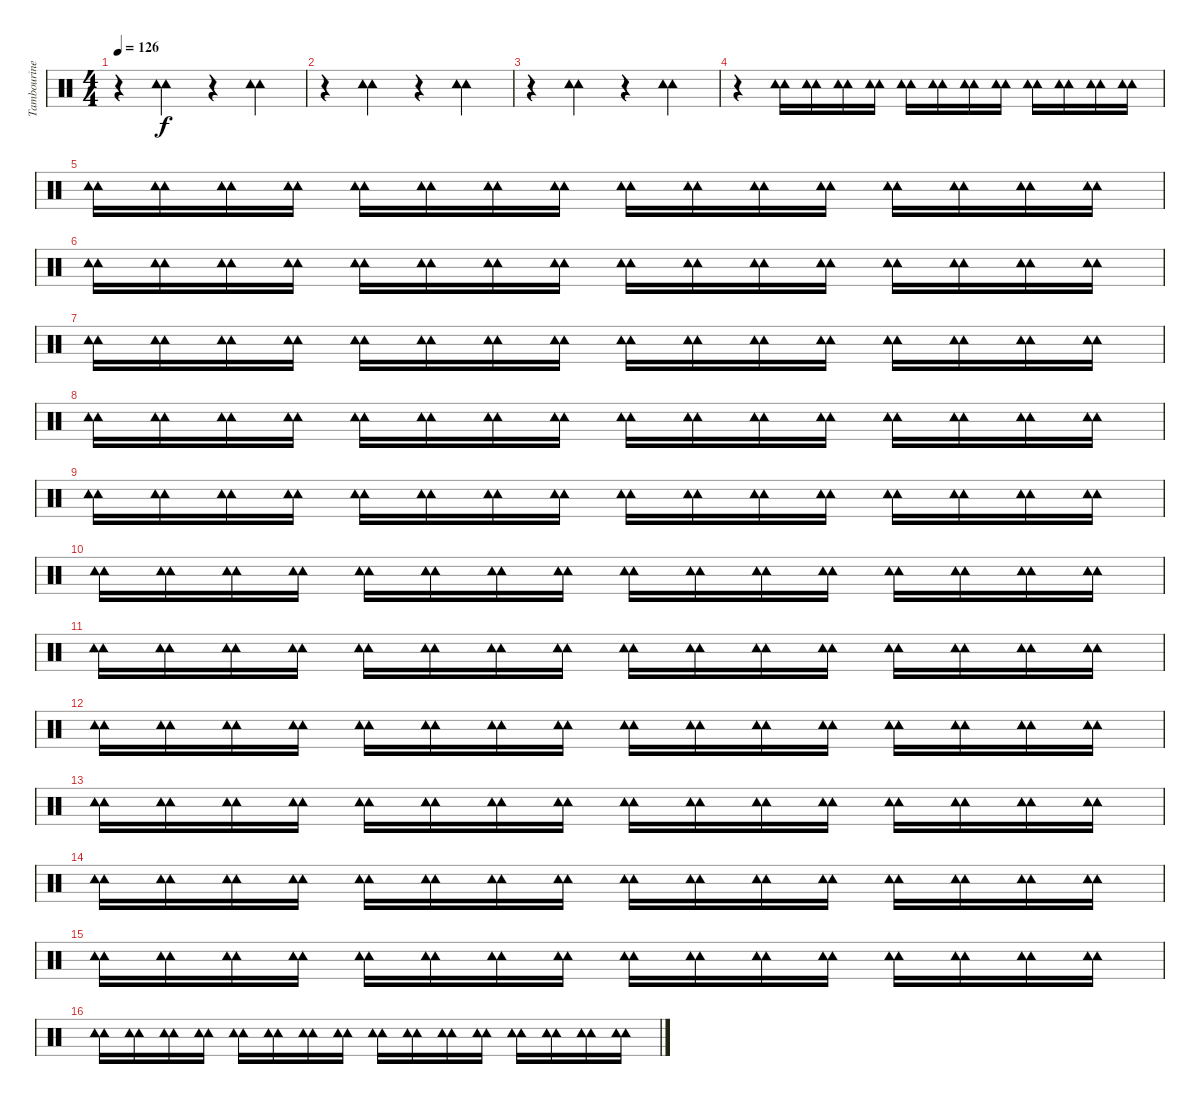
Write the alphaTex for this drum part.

\track ("Tambourine" "Tambourine") {instrument percussion}
\staff {score}
\articulation defaults
\ts (4 4)
\tempo 126
\clef neutral
\ks c
r.4{dy f} ("Tambourine (hit)" "Tambourine (hit)").4 r.4 ("Tambourine (hit)" "Tambourine (hit)").4 |
r.4 ("Tambourine (hit)" "Tambourine (hit)").4 r.4 ("Tambourine (hit)" "Tambourine (hit)").4 |
r.4 ("Tambourine (hit)" "Tambourine (hit)").4 r.4 ("Tambourine (hit)" "Tambourine (hit)").4 |
r.4 ("Tambourine (hit)" "Tambourine (hit)").16 ("Tambourine (hit)" "Tambourine (hit)").16 ("Tambourine (hit)" "Tambourine (hit)").16 ("Tambourine (hit)" "Tambourine (hit)").16 ("Tambourine (hit)" "Tambourine (hit)").16 ("Tambourine (hit)" "Tambourine (hit)").16 ("Tambourine (hit)" "Tambourine (hit)").16 ("Tambourine (hit)" "Tambourine (hit)").16 ("Tambourine (hit)" "Tambourine (hit)").16 ("Tambourine (hit)" "Tambourine (hit)").16 ("Tambourine (hit)" "Tambourine (hit)").16 ("Tambourine (hit)" "Tambourine (hit)").16 |
("Tambourine (hit)" "Tambourine (hit)").16 ("Tambourine (hit)" "Tambourine (hit)").16 ("Tambourine (hit)" "Tambourine (hit)").16 ("Tambourine (hit)" "Tambourine (hit)").16 ("Tambourine (hit)" "Tambourine (hit)").16 ("Tambourine (hit)" "Tambourine (hit)").16 ("Tambourine (hit)" "Tambourine (hit)").16 ("Tambourine (hit)" "Tambourine (hit)").16 ("Tambourine (hit)" "Tambourine (hit)").16 ("Tambourine (hit)" "Tambourine (hit)").16 ("Tambourine (hit)" "Tambourine (hit)").16 ("Tambourine (hit)" "Tambourine (hit)").16 ("Tambourine (hit)" "Tambourine (hit)").16 ("Tambourine (hit)" "Tambourine (hit)").16 ("Tambourine (hit)" "Tambourine (hit)").16 ("Tambourine (hit)" "Tambourine (hit)").16 |
("Tambourine (hit)" "Tambourine (hit)").16 ("Tambourine (hit)" "Tambourine (hit)").16 ("Tambourine (hit)" "Tambourine (hit)").16 ("Tambourine (hit)" "Tambourine (hit)").16 ("Tambourine (hit)" "Tambourine (hit)").16 ("Tambourine (hit)" "Tambourine (hit)").16 ("Tambourine (hit)" "Tambourine (hit)").16 ("Tambourine (hit)" "Tambourine (hit)").16 ("Tambourine (hit)" "Tambourine (hit)").16 ("Tambourine (hit)" "Tambourine (hit)").16 ("Tambourine (hit)" "Tambourine (hit)").16 ("Tambourine (hit)" "Tambourine (hit)").16 ("Tambourine (hit)" "Tambourine (hit)").16 ("Tambourine (hit)" "Tambourine (hit)").16 ("Tambourine (hit)" "Tambourine (hit)").16 ("Tambourine (hit)" "Tambourine (hit)").16 |
("Tambourine (hit)" "Tambourine (hit)").16 ("Tambourine (hit)" "Tambourine (hit)").16 ("Tambourine (hit)" "Tambourine (hit)").16 ("Tambourine (hit)" "Tambourine (hit)").16 ("Tambourine (hit)" "Tambourine (hit)").16 ("Tambourine (hit)" "Tambourine (hit)").16 ("Tambourine (hit)" "Tambourine (hit)").16 ("Tambourine (hit)" "Tambourine (hit)").16 ("Tambourine (hit)" "Tambourine (hit)").16 ("Tambourine (hit)" "Tambourine (hit)").16 ("Tambourine (hit)" "Tambourine (hit)").16 ("Tambourine (hit)" "Tambourine (hit)").16 ("Tambourine (hit)" "Tambourine (hit)").16 ("Tambourine (hit)" "Tambourine (hit)").16 ("Tambourine (hit)" "Tambourine (hit)").16 ("Tambourine (hit)" "Tambourine (hit)").16 |
("Tambourine (hit)" "Tambourine (hit)").16 ("Tambourine (hit)" "Tambourine (hit)").16 ("Tambourine (hit)" "Tambourine (hit)").16 ("Tambourine (hit)" "Tambourine (hit)").16 ("Tambourine (hit)" "Tambourine (hit)").16 ("Tambourine (hit)" "Tambourine (hit)").16 ("Tambourine (hit)" "Tambourine (hit)").16 ("Tambourine (hit)" "Tambourine (hit)").16 ("Tambourine (hit)" "Tambourine (hit)").16 ("Tambourine (hit)" "Tambourine (hit)").16 ("Tambourine (hit)" "Tambourine (hit)").16 ("Tambourine (hit)" "Tambourine (hit)").16 ("Tambourine (hit)" "Tambourine (hit)").16 ("Tambourine (hit)" "Tambourine (hit)").16 ("Tambourine (hit)" "Tambourine (hit)").16 ("Tambourine (hit)" "Tambourine (hit)").16 |
("Tambourine (hit)" "Tambourine (hit)").16 ("Tambourine (hit)" "Tambourine (hit)").16 ("Tambourine (hit)" "Tambourine (hit)").16 ("Tambourine (hit)" "Tambourine (hit)").16 ("Tambourine (hit)" "Tambourine (hit)").16 ("Tambourine (hit)" "Tambourine (hit)").16 ("Tambourine (hit)" "Tambourine (hit)").16 ("Tambourine (hit)" "Tambourine (hit)").16 ("Tambourine (hit)" "Tambourine (hit)").16 ("Tambourine (hit)" "Tambourine (hit)").16 ("Tambourine (hit)" "Tambourine (hit)").16 ("Tambourine (hit)" "Tambourine (hit)").16 ("Tambourine (hit)" "Tambourine (hit)").16 ("Tambourine (hit)" "Tambourine (hit)").16 ("Tambourine (hit)" "Tambourine (hit)").16 ("Tambourine (hit)" "Tambourine (hit)").16 |
("Tambourine (hit)" "Tambourine (hit)").16 ("Tambourine (hit)" "Tambourine (hit)").16 ("Tambourine (hit)" "Tambourine (hit)").16 ("Tambourine (hit)" "Tambourine (hit)").16 ("Tambourine (hit)" "Tambourine (hit)").16 ("Tambourine (hit)" "Tambourine (hit)").16 ("Tambourine (hit)" "Tambourine (hit)").16 ("Tambourine (hit)" "Tambourine (hit)").16 ("Tambourine (hit)" "Tambourine (hit)").16 ("Tambourine (hit)" "Tambourine (hit)").16 ("Tambourine (hit)" "Tambourine (hit)").16 ("Tambourine (hit)" "Tambourine (hit)").16 ("Tambourine (hit)" "Tambourine (hit)").16 ("Tambourine (hit)" "Tambourine (hit)").16 ("Tambourine (hit)" "Tambourine (hit)").16 ("Tambourine (hit)" "Tambourine (hit)").16 |
("Tambourine (hit)" "Tambourine (hit)").16 ("Tambourine (hit)" "Tambourine (hit)").16 ("Tambourine (hit)" "Tambourine (hit)").16 ("Tambourine (hit)" "Tambourine (hit)").16 ("Tambourine (hit)" "Tambourine (hit)").16 ("Tambourine (hit)" "Tambourine (hit)").16 ("Tambourine (hit)" "Tambourine (hit)").16 ("Tambourine (hit)" "Tambourine (hit)").16 ("Tambourine (hit)" "Tambourine (hit)").16 ("Tambourine (hit)" "Tambourine (hit)").16 ("Tambourine (hit)" "Tambourine (hit)").16 ("Tambourine (hit)" "Tambourine (hit)").16 ("Tambourine (hit)" "Tambourine (hit)").16 ("Tambourine (hit)" "Tambourine (hit)").16 ("Tambourine (hit)" "Tambourine (hit)").16 ("Tambourine (hit)" "Tambourine (hit)").16 |
("Tambourine (hit)" "Tambourine (hit)").16 ("Tambourine (hit)" "Tambourine (hit)").16 ("Tambourine (hit)" "Tambourine (hit)").16 ("Tambourine (hit)" "Tambourine (hit)").16 ("Tambourine (hit)" "Tambourine (hit)").16 ("Tambourine (hit)" "Tambourine (hit)").16 ("Tambourine (hit)" "Tambourine (hit)").16 ("Tambourine (hit)" "Tambourine (hit)").16 ("Tambourine (hit)" "Tambourine (hit)").16 ("Tambourine (hit)" "Tambourine (hit)").16 ("Tambourine (hit)" "Tambourine (hit)").16 ("Tambourine (hit)" "Tambourine (hit)").16 ("Tambourine (hit)" "Tambourine (hit)").16 ("Tambourine (hit)" "Tambourine (hit)").16 ("Tambourine (hit)" "Tambourine (hit)").16 ("Tambourine (hit)" "Tambourine (hit)").16 |
("Tambourine (hit)" "Tambourine (hit)").16 ("Tambourine (hit)" "Tambourine (hit)").16 ("Tambourine (hit)" "Tambourine (hit)").16 ("Tambourine (hit)" "Tambourine (hit)").16 ("Tambourine (hit)" "Tambourine (hit)").16 ("Tambourine (hit)" "Tambourine (hit)").16 ("Tambourine (hit)" "Tambourine (hit)").16 ("Tambourine (hit)" "Tambourine (hit)").16 ("Tambourine (hit)" "Tambourine (hit)").16 ("Tambourine (hit)" "Tambourine (hit)").16 ("Tambourine (hit)" "Tambourine (hit)").16 ("Tambourine (hit)" "Tambourine (hit)").16 ("Tambourine (hit)" "Tambourine (hit)").16 ("Tambourine (hit)" "Tambourine (hit)").16 ("Tambourine (hit)" "Tambourine (hit)").16 ("Tambourine (hit)" "Tambourine (hit)").16 |
("Tambourine (hit)" "Tambourine (hit)").16 ("Tambourine (hit)" "Tambourine (hit)").16 ("Tambourine (hit)" "Tambourine (hit)").16 ("Tambourine (hit)" "Tambourine (hit)").16 ("Tambourine (hit)" "Tambourine (hit)").16 ("Tambourine (hit)" "Tambourine (hit)").16 ("Tambourine (hit)" "Tambourine (hit)").16 ("Tambourine (hit)" "Tambourine (hit)").16 ("Tambourine (hit)" "Tambourine (hit)").16 ("Tambourine (hit)" "Tambourine (hit)").16 ("Tambourine (hit)" "Tambourine (hit)").16 ("Tambourine (hit)" "Tambourine (hit)").16 ("Tambourine (hit)" "Tambourine (hit)").16 ("Tambourine (hit)" "Tambourine (hit)").16 ("Tambourine (hit)" "Tambourine (hit)").16 ("Tambourine (hit)" "Tambourine (hit)").16 |
("Tambourine (hit)" "Tambourine (hit)").16 ("Tambourine (hit)" "Tambourine (hit)").16 ("Tambourine (hit)" "Tambourine (hit)").16 ("Tambourine (hit)" "Tambourine (hit)").16 ("Tambourine (hit)" "Tambourine (hit)").16 ("Tambourine (hit)" "Tambourine (hit)").16 ("Tambourine (hit)" "Tambourine (hit)").16 ("Tambourine (hit)" "Tambourine (hit)").16 ("Tambourine (hit)" "Tambourine (hit)").16 ("Tambourine (hit)" "Tambourine (hit)").16 ("Tambourine (hit)" "Tambourine (hit)").16 ("Tambourine (hit)" "Tambourine (hit)").16 ("Tambourine (hit)" "Tambourine (hit)").16 ("Tambourine (hit)" "Tambourine (hit)").16 ("Tambourine (hit)" "Tambourine (hit)").16 ("Tambourine (hit)" "Tambourine (hit)").16 |
("Tambourine (hit)" "Tambourine (hit)").16 ("Tambourine (hit)" "Tambourine (hit)").16 ("Tambourine (hit)" "Tambourine (hit)").16 ("Tambourine (hit)" "Tambourine (hit)").16 ("Tambourine (hit)" "Tambourine (hit)").16 ("Tambourine (hit)" "Tambourine (hit)").16 ("Tambourine (hit)" "Tambourine (hit)").16 ("Tambourine (hit)" "Tambourine (hit)").16 ("Tambourine (hit)" "Tambourine (hit)").16 ("Tambourine (hit)" "Tambourine (hit)").16 ("Tambourine (hit)" "Tambourine (hit)").16 ("Tambourine (hit)" "Tambourine (hit)").16 ("Tambourine (hit)" "Tambourine (hit)").16 ("Tambourine (hit)" "Tambourine (hit)").16 ("Tambourine (hit)" "Tambourine (hit)").16 ("Tambourine (hit)" "Tambourine (hit)").16
